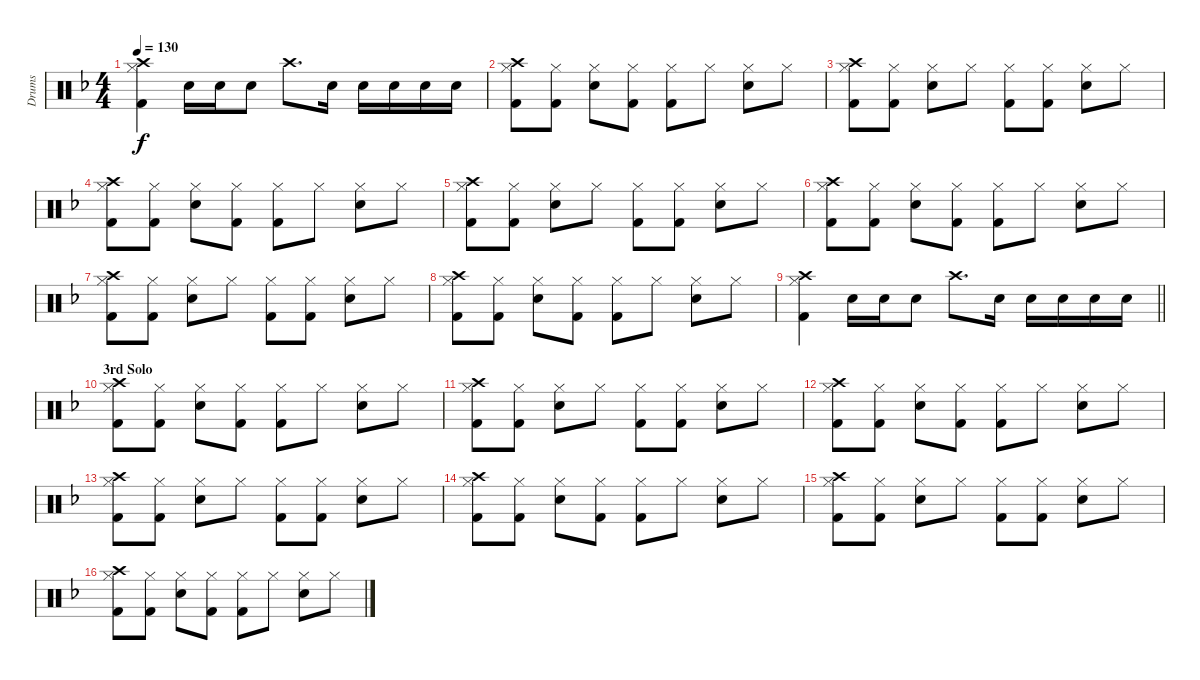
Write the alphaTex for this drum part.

\track ("Drums" "Drums") {instrument percussion}
\staff {score}
\articulation defaults
\ts (4 4)
\tempo 130
\clef neutral
\ks dminor
("Hi-Hat (closed)" "Kick (hit) 2" "Crash high (hit)").4{dy f} "Snare (hit) 2".16 "Snare (hit) 2".16 "Snare (hit) 2".8 "Crash high (hit)".8{d} "Snare (hit) 2".16 "Snare (hit) 2".16 "Snare (hit) 2".16 "Snare (hit) 2".16 "Snare (hit) 2".16 |
("Hi-Hat (closed)" "Kick (hit) 2" "Crash high (hit)").8 ("Hi-Hat (closed)" "Kick (hit) 2").8 ("Hi-Hat (closed)" "Snare (hit) 2").8 ("Hi-Hat (closed)" "Kick (hit) 2").8 ("Hi-Hat (closed)" "Kick (hit) 2").8 "Hi-Hat (closed)".8 ("Hi-Hat (closed)" "Snare (hit) 2").8 "Hi-Hat (closed)".8 |
("Hi-Hat (closed)" "Kick (hit) 2" "Crash high (hit)").8 ("Hi-Hat (closed)" "Kick (hit) 2").8 ("Hi-Hat (closed)" "Snare (hit) 2").8 "Hi-Hat (closed)".8 ("Hi-Hat (closed)" "Kick (hit) 2").8 ("Hi-Hat (closed)" "Kick (hit) 2").8 ("Hi-Hat (closed)" "Snare (hit) 2").8 "Hi-Hat (closed)".8 |
("Hi-Hat (closed)" "Kick (hit) 2" "Crash high (hit)").8 ("Hi-Hat (closed)" "Kick (hit) 2").8 ("Hi-Hat (closed)" "Snare (hit) 2").8 ("Hi-Hat (closed)" "Kick (hit) 2").8 ("Hi-Hat (closed)" "Kick (hit) 2").8 "Hi-Hat (closed)".8 ("Hi-Hat (closed)" "Snare (hit) 2").8 "Hi-Hat (closed)".8 |
("Hi-Hat (closed)" "Kick (hit) 2" "Crash high (hit)").8 ("Hi-Hat (closed)" "Kick (hit) 2").8 ("Hi-Hat (closed)" "Snare (hit) 2").8 "Hi-Hat (closed)".8 ("Hi-Hat (closed)" "Kick (hit) 2").8 ("Hi-Hat (closed)" "Kick (hit) 2").8 ("Hi-Hat (closed)" "Snare (hit) 2").8 "Hi-Hat (closed)".8 |
("Hi-Hat (closed)" "Kick (hit) 2" "Crash high (hit)").8 ("Hi-Hat (closed)" "Kick (hit) 2").8 ("Hi-Hat (closed)" "Snare (hit) 2").8 ("Hi-Hat (closed)" "Kick (hit) 2").8 ("Hi-Hat (closed)" "Kick (hit) 2").8 "Hi-Hat (closed)".8 ("Hi-Hat (closed)" "Snare (hit) 2").8 "Hi-Hat (closed)".8 |
("Hi-Hat (closed)" "Kick (hit) 2" "Crash high (hit)").8 ("Hi-Hat (closed)" "Kick (hit) 2").8 ("Hi-Hat (closed)" "Snare (hit) 2").8 "Hi-Hat (closed)".8 ("Hi-Hat (closed)" "Kick (hit) 2").8 ("Hi-Hat (closed)" "Kick (hit) 2").8 ("Hi-Hat (closed)" "Snare (hit) 2").8 "Hi-Hat (closed)".8 |
("Hi-Hat (closed)" "Kick (hit) 2" "Crash high (hit)").8 ("Hi-Hat (closed)" "Kick (hit) 2").8 ("Hi-Hat (closed)" "Snare (hit) 2").8 ("Hi-Hat (closed)" "Kick (hit) 2").8 ("Hi-Hat (closed)" "Kick (hit) 2").8 "Hi-Hat (closed)".8 ("Hi-Hat (closed)" "Snare (hit) 2").8 "Hi-Hat (closed)".8 |
\barLineRight lightlight
("Hi-Hat (closed)" "Kick (hit) 2" "Crash high (hit)").4 "Snare (hit) 2".16 "Snare (hit) 2".16 "Snare (hit) 2".8 "Crash high (hit)".8{d} "Snare (hit) 2".16 "Snare (hit) 2".16 "Snare (hit) 2".16 "Snare (hit) 2".16 "Snare (hit) 2".16 |
\section ("" "3rd Solo")
("Hi-Hat (closed)" "Kick (hit) 2" "Crash high (hit)").8 ("Hi-Hat (closed)" "Kick (hit) 2").8 ("Hi-Hat (closed)" "Snare (hit) 2").8 ("Hi-Hat (closed)" "Kick (hit) 2").8 ("Hi-Hat (closed)" "Kick (hit) 2").8 "Hi-Hat (closed)".8 ("Hi-Hat (closed)" "Snare (hit) 2").8 "Hi-Hat (closed)".8 |
("Hi-Hat (closed)" "Kick (hit) 2" "Crash high (hit)").8 ("Hi-Hat (closed)" "Kick (hit) 2").8 ("Hi-Hat (closed)" "Snare (hit) 2").8 "Hi-Hat (closed)".8 ("Hi-Hat (closed)" "Kick (hit) 2").8 ("Hi-Hat (closed)" "Kick (hit) 2").8 ("Hi-Hat (closed)" "Snare (hit) 2").8 "Hi-Hat (closed)".8 |
("Hi-Hat (closed)" "Kick (hit) 2" "Crash high (hit)").8 ("Hi-Hat (closed)" "Kick (hit) 2").8 ("Hi-Hat (closed)" "Snare (hit) 2").8 ("Hi-Hat (closed)" "Kick (hit) 2").8 ("Hi-Hat (closed)" "Kick (hit) 2").8 "Hi-Hat (closed)".8 ("Hi-Hat (closed)" "Snare (hit) 2").8 "Hi-Hat (closed)".8 |
("Hi-Hat (closed)" "Kick (hit) 2" "Crash high (hit)").8 ("Hi-Hat (closed)" "Kick (hit) 2").8 ("Hi-Hat (closed)" "Snare (hit) 2").8 "Hi-Hat (closed)".8 ("Hi-Hat (closed)" "Kick (hit) 2").8 ("Hi-Hat (closed)" "Kick (hit) 2").8 ("Hi-Hat (closed)" "Snare (hit) 2").8 "Hi-Hat (closed)".8 |
("Hi-Hat (closed)" "Kick (hit) 2" "Crash high (hit)").8 ("Hi-Hat (closed)" "Kick (hit) 2").8 ("Hi-Hat (closed)" "Snare (hit) 2").8 ("Hi-Hat (closed)" "Kick (hit) 2").8 ("Hi-Hat (closed)" "Kick (hit) 2").8 "Hi-Hat (closed)".8 ("Hi-Hat (closed)" "Snare (hit) 2").8 "Hi-Hat (closed)".8 |
("Hi-Hat (closed)" "Kick (hit) 2" "Crash high (hit)").8 ("Hi-Hat (closed)" "Kick (hit) 2").8 ("Hi-Hat (closed)" "Snare (hit) 2").8 "Hi-Hat (closed)".8 ("Hi-Hat (closed)" "Kick (hit) 2").8 ("Hi-Hat (closed)" "Kick (hit) 2").8 ("Hi-Hat (closed)" "Snare (hit) 2").8 "Hi-Hat (closed)".8 |
("Hi-Hat (closed)" "Kick (hit) 2" "Crash high (hit)").8 ("Hi-Hat (closed)" "Kick (hit) 2").8 ("Hi-Hat (closed)" "Snare (hit) 2").8 ("Hi-Hat (closed)" "Kick (hit) 2").8 ("Hi-Hat (closed)" "Kick (hit) 2").8 "Hi-Hat (closed)".8 ("Hi-Hat (closed)" "Snare (hit) 2").8 "Hi-Hat (closed)".8
